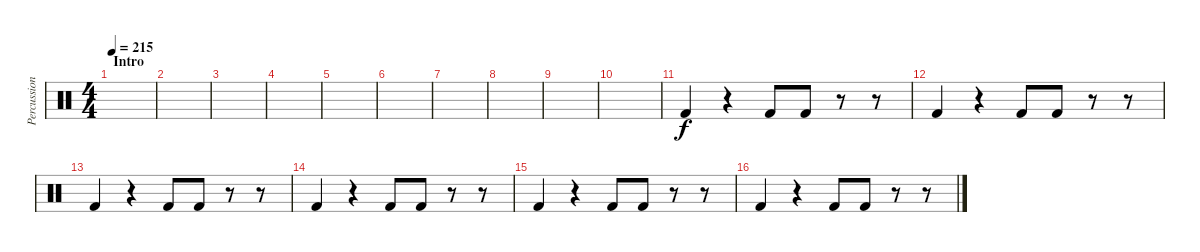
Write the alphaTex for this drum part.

\track ("Percussion" "Percussion") {instrument percussion}
\staff {score}
\articulation defaults
\ts (4 4)
\section ("" "Intro")
\tempo 215
\clef neutral
\ks c
|
|
|
|
|
|
|
|
|
|
"Kick (hit) 2".4 r.4 "Kick (hit) 2".8 "Kick (hit) 2".8 r.8 r.8 |
"Kick (hit) 2".4 r.4 "Kick (hit) 2".8 "Kick (hit) 2".8 r.8 r.8 |
"Kick (hit) 2".4 r.4 "Kick (hit) 2".8 "Kick (hit) 2".8 r.8 r.8 |
"Kick (hit) 2".4 r.4 "Kick (hit) 2".8 "Kick (hit) 2".8 r.8 r.8 |
"Kick (hit) 2".4 r.4 "Kick (hit) 2".8 "Kick (hit) 2".8 r.8 r.8 |
"Kick (hit) 2".4 r.4 "Kick (hit) 2".8 "Kick (hit) 2".8 r.8 r.8
